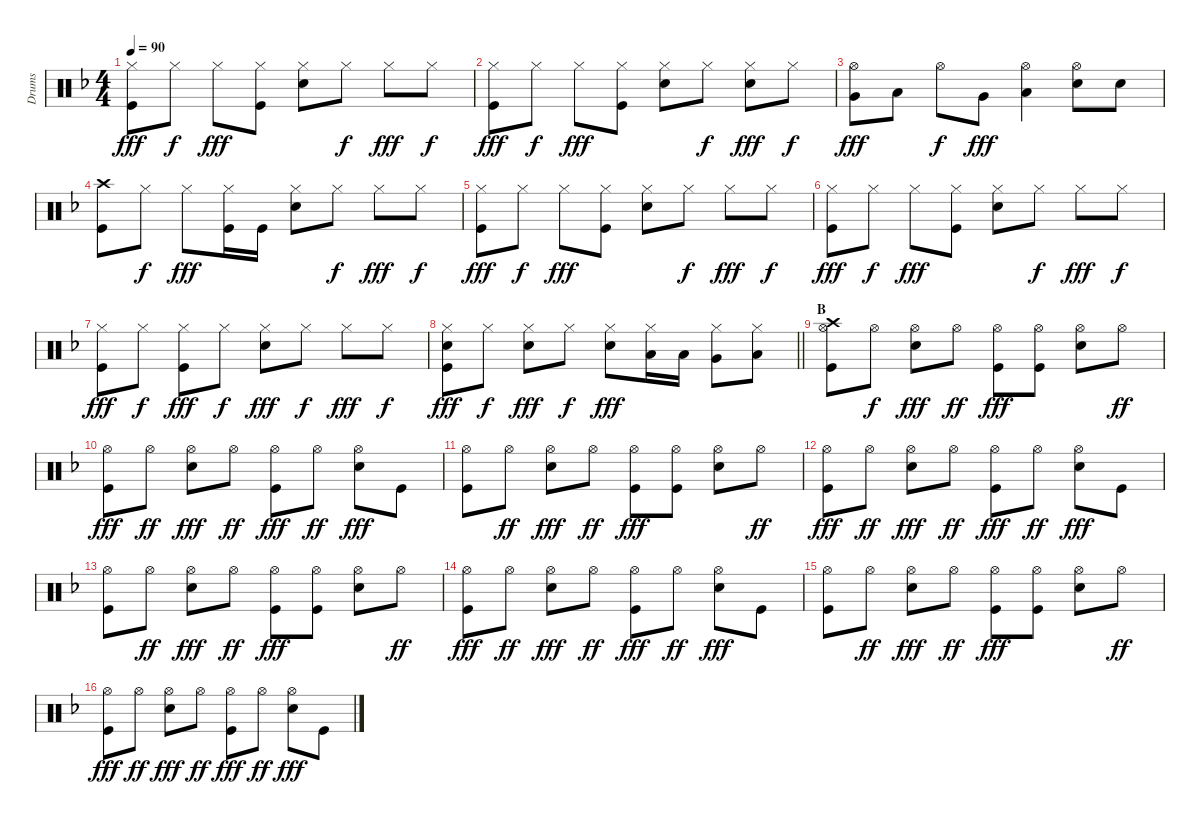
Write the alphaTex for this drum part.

\track ("Drums" "Drums") {instrument percussion}
\staff {score}
\articulation defaults
\ts (4 4)
\tempo 90
\clef neutral
\ks f
("Hi-Hat (closed)" "Kick (hit)").8{dy fff} "Hi-Hat (closed)".8{dy f} "Hi-Hat (closed)".8{dy fff} ("Hi-Hat (closed)" "Kick (hit)").8 ("Hi-Hat (closed)" "Snare (hit) 2").8 "Hi-Hat (closed)".8{dy f} "Hi-Hat (closed)".8{dy fff} "Hi-Hat (closed)".8{dy f} |
("Hi-Hat (closed)" "Kick (hit)").8{dy fff} "Hi-Hat (closed)".8{dy f} "Hi-Hat (closed)".8{dy fff} ("Hi-Hat (closed)" "Kick (hit)").8 ("Hi-Hat (closed)" "Snare (hit) 2").8 "Hi-Hat (closed)".8{dy f} ("Hi-Hat (closed)" "Snare (hit) 2").8{dy fff} "Hi-Hat (closed)".8{dy f} |
("Hi-Hat (open)" "Very Low Tom (hit)").8{dy fff} "Low Tom (hit)".8 "Hi-Hat (open)".8{dy f} "Very Low Tom (hit)".8{dy fff} ("Hi-Hat (open)" "Low Floor Tom (hit)").4 ("Hi-Hat (open)" "Snare (hit) 2").8 "Snare (hit) 2".8 |
("Crash high (hit)" "Kick (hit)").8 "Hi-Hat (closed)".8{dy f} "Hi-Hat (closed)".8{dy fff} ("Hi-Hat (closed)" "Kick (hit)").16 "Kick (hit)".16 ("Hi-Hat (closed)" "Snare (hit) 2").8 "Hi-Hat (closed)".8{dy f} "Hi-Hat (closed)".8{dy fff} "Hi-Hat (closed)".8{dy f} |
("Hi-Hat (closed)" "Kick (hit)").8{dy fff} "Hi-Hat (closed)".8{dy f} "Hi-Hat (closed)".8{dy fff} ("Hi-Hat (closed)" "Kick (hit)").8 ("Hi-Hat (closed)" "Snare (hit) 2").8 "Hi-Hat (closed)".8{dy f} "Hi-Hat (closed)".8{dy fff} "Hi-Hat (closed)".8{dy f} |
("Hi-Hat (closed)" "Kick (hit)").8{dy fff} "Hi-Hat (closed)".8{dy f} "Hi-Hat (closed)".8{dy fff} ("Hi-Hat (closed)" "Kick (hit)").8 ("Hi-Hat (closed)" "Snare (hit) 2").8 "Hi-Hat (closed)".8{dy f} "Hi-Hat (closed)".8{dy fff} "Hi-Hat (closed)".8{dy f} |
("Hi-Hat (closed)" "Kick (hit)").8{dy fff} "Hi-Hat (closed)".8{dy f} ("Hi-Hat (closed)" "Kick (hit)").8{dy fff} "Hi-Hat (closed)".8{dy f} ("Hi-Hat (closed)" "Snare (hit) 2").8{dy fff} "Hi-Hat (closed)".8{dy f} "Hi-Hat (closed)".8{dy fff} "Hi-Hat (closed)".8{dy f} |
\barLineRight lightlight
("Hi-Hat (closed)" "Snare (hit) 2" "Kick (hit)").8{dy fff} "Hi-Hat (closed)".8{dy f} ("Hi-Hat (closed)" "Snare (hit) 2").8{dy fff} "Hi-Hat (closed)".8{dy f} ("Hi-Hat (closed)" "Snare (hit) 2").8{dy fff} ("Hi-Hat (closed)" "Low Tom (hit)").16 "Low Tom (hit)".16 ("Hi-Hat (closed)" "Very Low Tom (hit)").8 ("Hi-Hat (closed)" "Low Floor Tom (hit)").8 |
\section ("" "B")
("Hi-Hat (open)" "Crash high (hit)" "Kick (hit)").8 "Hi-Hat (open)".8{dy f} ("Hi-Hat (open)" "Snare (hit) 2").8{dy fff} "Hi-Hat (open)".8{dy ff} ("Hi-Hat (open)" "Kick (hit)").8{dy fff} ("Hi-Hat (open)" "Kick (hit)").8 ("Hi-Hat (open)" "Snare (hit) 2").8 "Hi-Hat (open)".8{dy ff} |
("Hi-Hat (open)" "Kick (hit)").8{dy fff} "Hi-Hat (open)".8{dy ff} ("Hi-Hat (open)" "Snare (hit) 2").8{dy fff} "Hi-Hat (open)".8{dy ff} ("Hi-Hat (open)" "Kick (hit)").8{dy fff} "Hi-Hat (open)".8{dy ff} ("Hi-Hat (open)" "Snare (hit) 2").8{dy fff} "Kick (hit)".8 |
("Hi-Hat (open)" "Kick (hit)").8 "Hi-Hat (open)".8{dy ff} ("Hi-Hat (open)" "Snare (hit) 2").8{dy fff} "Hi-Hat (open)".8{dy ff} ("Hi-Hat (open)" "Kick (hit)").8{dy fff} ("Hi-Hat (open)" "Kick (hit)").8 ("Hi-Hat (open)" "Snare (hit) 2").8 "Hi-Hat (open)".8{dy ff} |
("Hi-Hat (open)" "Kick (hit)").8{dy fff} "Hi-Hat (open)".8{dy ff} ("Hi-Hat (open)" "Snare (hit) 2").8{dy fff} "Hi-Hat (open)".8{dy ff} ("Hi-Hat (open)" "Kick (hit)").8{dy fff} "Hi-Hat (open)".8{dy ff} ("Hi-Hat (open)" "Snare (hit) 2").8{dy fff} "Kick (hit)".8 |
("Hi-Hat (open)" "Kick (hit)").8 "Hi-Hat (open)".8{dy ff} ("Hi-Hat (open)" "Snare (hit) 2").8{dy fff} "Hi-Hat (open)".8{dy ff} ("Hi-Hat (open)" "Kick (hit)").8{dy fff} ("Hi-Hat (open)" "Kick (hit)").8 ("Hi-Hat (open)" "Snare (hit) 2").8 "Hi-Hat (open)".8{dy ff} |
("Hi-Hat (open)" "Kick (hit)").8{dy fff} "Hi-Hat (open)".8{dy ff} ("Hi-Hat (open)" "Snare (hit) 2").8{dy fff} "Hi-Hat (open)".8{dy ff} ("Hi-Hat (open)" "Kick (hit)").8{dy fff} "Hi-Hat (open)".8{dy ff} ("Hi-Hat (open)" "Snare (hit) 2").8{dy fff} "Kick (hit)".8 |
("Hi-Hat (open)" "Kick (hit)").8 "Hi-Hat (open)".8{dy ff} ("Hi-Hat (open)" "Snare (hit) 2").8{dy fff} "Hi-Hat (open)".8{dy ff} ("Hi-Hat (open)" "Kick (hit)").8{dy fff} ("Hi-Hat (open)" "Kick (hit)").8 ("Hi-Hat (open)" "Snare (hit) 2").8 "Hi-Hat (open)".8{dy ff} |
("Hi-Hat (open)" "Kick (hit)").8{dy fff} "Hi-Hat (open)".8{dy ff} ("Hi-Hat (open)" "Snare (hit) 2").8{dy fff} "Hi-Hat (open)".8{dy ff} ("Hi-Hat (open)" "Kick (hit)").8{dy fff} "Hi-Hat (open)".8{dy ff} ("Hi-Hat (open)" "Snare (hit) 2").8{dy fff} "Kick (hit)".8
